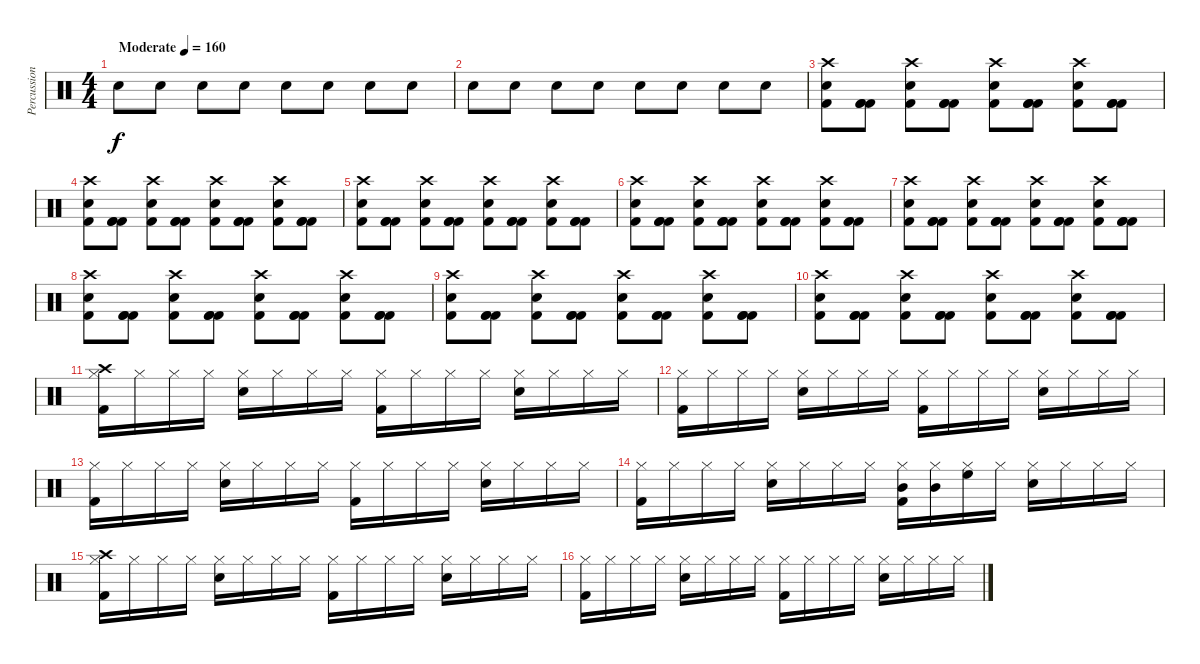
\track ("Percussion" "Percussion") {instrument percussion}
\staff {score}
\articulation defaults
\ts (4 4)
\tempo (160 "Moderate")
\clef neutral
\ks c "Electric Snare (hit)".8{dy f} "Electric Snare (hit)".8 "Electric Snare (hit)".8 "Electric Snare (hit)".8 "Electric Snare (hit)".8 "Electric Snare (hit)".8 "Electric Snare (hit)".8 "Electric Snare (hit)".8
|
"Electric Snare (hit)".8 "Electric Snare (hit)".8 "Electric Snare (hit)".8 "Electric Snare (hit)".8 "Electric Snare (hit)".8 "Electric Snare (hit)".8 "Electric Snare (hit)".8 "Electric Snare (hit)".8 |
("Electric Snare (hit)" "Kick (hit) 2" "Crash high (hit)").8 ("Kick (hit) 2" "Kick (hit) 2" "Kick (hit) 2").8 ("Electric Snare (hit)" "Kick (hit) 2" "Crash high (hit)").8 ("Kick (hit) 2" "Kick (hit) 2" "Kick (hit) 2").8 ("Electric Snare (hit)" "Kick (hit) 2" "Crash high (hit)").8 ("Kick (hit) 2" "Kick (hit) 2" "Kick (hit) 2").8 ("Electric Snare (hit)" "Kick (hit) 2" "Crash high (hit)").8 ("Kick (hit) 2" "Kick (hit) 2" "Kick (hit) 2").8 |
("Electric Snare (hit)" "Kick (hit) 2" "Crash high (hit)").8 ("Kick (hit) 2" "Kick (hit) 2" "Kick (hit) 2").8 ("Electric Snare (hit)" "Kick (hit) 2" "Crash high (hit)").8 ("Kick (hit) 2" "Kick (hit) 2" "Kick (hit) 2").8 ("Electric Snare (hit)" "Kick (hit) 2" "Crash high (hit)").8 ("Kick (hit) 2" "Kick (hit) 2" "Kick (hit) 2").8 ("Electric Snare (hit)" "Kick (hit) 2" "Crash high (hit)").8 ("Kick (hit) 2" "Kick (hit) 2" "Kick (hit) 2").8 |
("Electric Snare (hit)" "Kick (hit) 2" "Crash high (hit)").8 ("Kick (hit) 2" "Kick (hit) 2" "Kick (hit) 2").8 ("Electric Snare (hit)" "Kick (hit) 2" "Crash high (hit)").8 ("Kick (hit) 2" "Kick (hit) 2" "Kick (hit) 2").8 ("Electric Snare (hit)" "Kick (hit) 2" "Crash high (hit)").8 ("Kick (hit) 2" "Kick (hit) 2" "Kick (hit) 2").8 ("Electric Snare (hit)" "Kick (hit) 2" "Crash high (hit)").8 ("Kick (hit) 2" "Kick (hit) 2" "Kick (hit) 2").8 |
("Electric Snare (hit)" "Kick (hit) 2" "Crash high (hit)").8 ("Kick (hit) 2" "Kick (hit) 2" "Kick (hit) 2").8 ("Electric Snare (hit)" "Kick (hit) 2" "Crash high (hit)").8 ("Kick (hit) 2" "Kick (hit) 2" "Kick (hit) 2").8 ("Electric Snare (hit)" "Kick (hit) 2" "Crash high (hit)").8 ("Kick (hit) 2" "Kick (hit) 2" "Kick (hit) 2").8 ("Electric Snare (hit)" "Kick (hit) 2" "Crash high (hit)").8 ("Kick (hit) 2" "Kick (hit) 2" "Kick (hit) 2").8 |
("Electric Snare (hit)" "Kick (hit) 2" "Crash high (hit)").8 ("Kick (hit) 2" "Kick (hit) 2" "Kick (hit) 2").8 ("Electric Snare (hit)" "Kick (hit) 2" "Crash high (hit)").8 ("Kick (hit) 2" "Kick (hit) 2" "Kick (hit) 2").8 ("Electric Snare (hit)" "Kick (hit) 2" "Crash high (hit)").8 ("Kick (hit) 2" "Kick (hit) 2" "Kick (hit) 2").8 ("Electric Snare (hit)" "Kick (hit) 2" "Crash high (hit)").8 ("Kick (hit) 2" "Kick (hit) 2" "Kick (hit) 2").8 |
("Electric Snare (hit)" "Kick (hit) 2" "Crash high (hit)").8 ("Kick (hit) 2" "Kick (hit) 2" "Kick (hit) 2").8 ("Electric Snare (hit)" "Kick (hit) 2" "Crash high (hit)").8 ("Kick (hit) 2" "Kick (hit) 2" "Kick (hit) 2").8 ("Electric Snare (hit)" "Kick (hit) 2" "Crash high (hit)").8 ("Kick (hit) 2" "Kick (hit) 2" "Kick (hit) 2").8 ("Electric Snare (hit)" "Kick (hit) 2" "Crash high (hit)").8 ("Kick (hit) 2" "Kick (hit) 2" "Kick (hit) 2").8 |
("Electric Snare (hit)" "Kick (hit) 2" "Crash high (hit)").8 ("Kick (hit) 2" "Kick (hit) 2" "Kick (hit) 2").8 ("Electric Snare (hit)" "Kick (hit) 2" "Crash high (hit)").8 ("Kick (hit) 2" "Kick (hit) 2" "Kick (hit) 2").8 ("Electric Snare (hit)" "Kick (hit) 2" "Crash high (hit)").8 ("Kick (hit) 2" "Kick (hit) 2" "Kick (hit) 2").8 ("Electric Snare (hit)" "Kick (hit) 2" "Crash high (hit)").8 ("Kick (hit) 2" "Kick (hit) 2" "Kick (hit) 2").8 |
("Electric Snare (hit)" "Kick (hit) 2" "Crash high (hit)").8 ("Kick (hit) 2" "Kick (hit) 2" "Kick (hit) 2").8 ("Electric Snare (hit)" "Kick (hit) 2" "Crash high (hit)").8 ("Kick (hit) 2" "Kick (hit) 2" "Kick (hit) 2").8 ("Electric Snare (hit)" "Kick (hit) 2" "Crash high (hit)").8 ("Kick (hit) 2" "Kick (hit) 2" "Kick (hit) 2").8 ("Electric Snare (hit)" "Kick (hit) 2" "Crash high (hit)").8 ("Kick (hit) 2" "Kick (hit) 2" "Kick (hit) 2").8 |
("Kick (hit) 2" "Hi-Hat (closed)" "Crash high (hit)").16 "Hi-Hat (closed)".16 "Hi-Hat (closed)".16 "Hi-Hat (closed)".16 ("Electric Snare (hit)" "Hi-Hat (closed)").16 "Hi-Hat (closed)".16 "Hi-Hat (closed)".16 "Hi-Hat (closed)".16 ("Kick (hit) 2" "Hi-Hat (closed)").16 "Hi-Hat (closed)".16 "Hi-Hat (closed)".16 "Hi-Hat (closed)".16 ("Electric Snare (hit)" "Hi-Hat (closed)").16 "Hi-Hat (closed)".16 "Hi-Hat (closed)".16 "Hi-Hat (closed)".16 |
("Kick (hit) 2" "Hi-Hat (closed)").16 "Hi-Hat (closed)".16 "Hi-Hat (closed)".16 "Hi-Hat (closed)".16 ("Electric Snare (hit)" "Hi-Hat (closed)").16 "Hi-Hat (closed)".16 "Hi-Hat (closed)".16 "Hi-Hat (closed)".16 ("Kick (hit) 2" "Hi-Hat (closed)").16 "Hi-Hat (closed)".16 "Hi-Hat (closed)".16 "Hi-Hat (closed)".16 ("Electric Snare (hit)" "Hi-Hat (closed)").16 "Hi-Hat (closed)".16 "Hi-Hat (closed)".16 "Hi-Hat (closed)".16 |
("Kick (hit) 2" "Hi-Hat (closed)").16 "Hi-Hat (closed)".16 "Hi-Hat (closed)".16 "Hi-Hat (closed)".16 ("Electric Snare (hit)" "Hi-Hat (closed)").16 "Hi-Hat (closed)".16 "Hi-Hat (closed)".16 "Hi-Hat (closed)".16 ("Kick (hit) 2" "Hi-Hat (closed)").16 "Hi-Hat (closed)".16 "Hi-Hat (closed)".16 "Hi-Hat (closed)".16 ("Electric Snare (hit)" "Hi-Hat (closed)").16 "Hi-Hat (closed)".16 "Hi-Hat (closed)".16 "Hi-Hat (closed)".16 |
("Kick (hit) 2" "Hi-Hat (closed)").16 "Hi-Hat (closed)".16 "Hi-Hat (closed)".16 "Hi-Hat (closed)".16 ("Electric Snare (hit)" "Hi-Hat (closed)").16 "Hi-Hat (closed)".16 "Hi-Hat (closed)".16 "Hi-Hat (closed)".16 ("Kick (hit) 2" "Hi-Hat (closed)" "Mid Tom (hit)").16 ("Hi-Hat (closed)" "Mid Tom (hit)").16 ("Hi-Hat (closed)" "High Floor Tom (hit)").16 "Hi-Hat (closed)".16 ("Electric Snare (hit)" "Hi-Hat (closed)").16 "Hi-Hat (closed)".16 "Hi-Hat (closed)".16 "Hi-Hat (closed)".16 |
("Kick (hit) 2" "Hi-Hat (closed)" "Crash high (hit)").16 "Hi-Hat (closed)".16 "Hi-Hat (closed)".16 "Hi-Hat (closed)".16 ("Electric Snare (hit)" "Hi-Hat (closed)").16 "Hi-Hat (closed)".16 "Hi-Hat (closed)".16 "Hi-Hat (closed)".16 ("Kick (hit) 2" "Hi-Hat (closed)").16 "Hi-Hat (closed)".16 "Hi-Hat (closed)".16 "Hi-Hat (closed)".16 ("Electric Snare (hit)" "Hi-Hat (closed)").16 "Hi-Hat (closed)".16 "Hi-Hat (closed)".16 "Hi-Hat (closed)".16 |
("Kick (hit) 2" "Hi-Hat (closed)").16 "Hi-Hat (closed)".16 "Hi-Hat (closed)".16 "Hi-Hat (closed)".16 ("Electric Snare (hit)" "Hi-Hat (closed)").16 "Hi-Hat (closed)".16 "Hi-Hat (closed)".16 "Hi-Hat (closed)".16 ("Kick (hit) 2" "Hi-Hat (closed)").16 "Hi-Hat (closed)".16 "Hi-Hat (closed)".16 "Hi-Hat (closed)".16 ("Electric Snare (hit)" "Hi-Hat (closed)").16 "Hi-Hat (closed)".16 "Hi-Hat (closed)".16 "Hi-Hat (closed)".16
